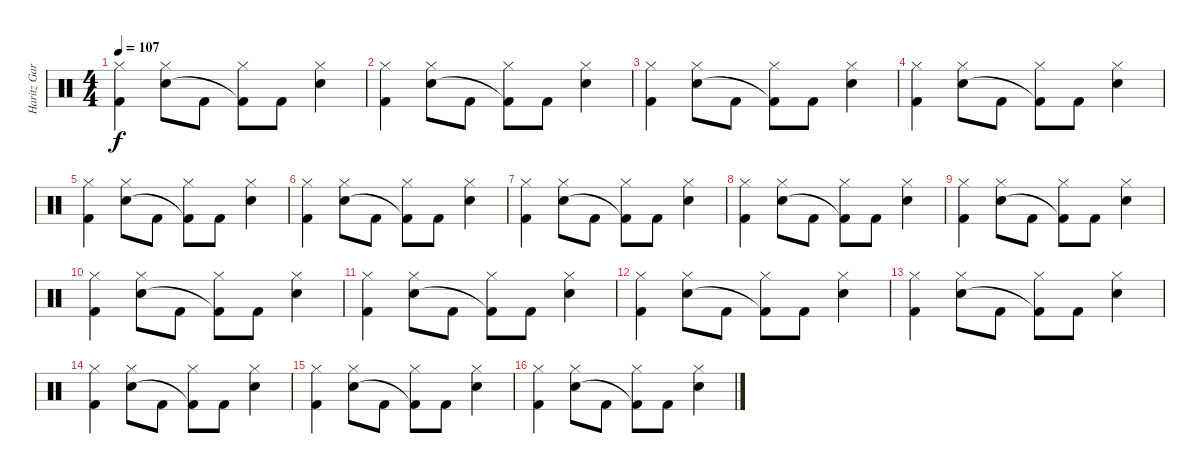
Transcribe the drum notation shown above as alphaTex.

\track ("Haritz Gardo" "Haritz Gar") {instrument percussion}
\staff {score}
\articulation defaults
\ts (4 4)
\tempo 107
\clef neutral
\ks c
("Hi-Hat (closed)" "Kick (hit) 2").4{dy f} ("Hi-Hat (closed)" "Electric Snare (hit)").8 "Kick (hit) 2".8 ("Hi-Hat (closed)" "Kick (hit) 2"{t}).8 "Kick (hit) 2".8 ("Hi-Hat (closed)" "Electric Snare (hit)").4 |
("Hi-Hat (closed)" "Kick (hit) 2").4 ("Hi-Hat (closed)" "Electric Snare (hit)").8 "Kick (hit) 2".8 ("Hi-Hat (closed)" "Kick (hit) 2"{t}).8 "Kick (hit) 2".8 ("Hi-Hat (closed)" "Electric Snare (hit)").4 |
("Hi-Hat (closed)" "Kick (hit) 2").4 ("Hi-Hat (closed)" "Electric Snare (hit)").8 "Kick (hit) 2".8 ("Hi-Hat (closed)" "Kick (hit) 2"{t}).8 "Kick (hit) 2".8 ("Hi-Hat (closed)" "Electric Snare (hit)").4 |
("Hi-Hat (closed)" "Kick (hit) 2").4 ("Hi-Hat (closed)" "Electric Snare (hit)").8 "Kick (hit) 2".8 ("Hi-Hat (closed)" "Kick (hit) 2"{t}).8 "Kick (hit) 2".8 ("Hi-Hat (closed)" "Electric Snare (hit)").4 |
("Hi-Hat (closed)" "Kick (hit) 2").4 ("Hi-Hat (closed)" "Electric Snare (hit)").8 "Kick (hit) 2".8 ("Hi-Hat (closed)" "Kick (hit) 2"{t}).8 "Kick (hit) 2".8 ("Hi-Hat (closed)" "Electric Snare (hit)").4 |
("Hi-Hat (closed)" "Kick (hit) 2").4 ("Hi-Hat (closed)" "Electric Snare (hit)").8 "Kick (hit) 2".8 ("Hi-Hat (closed)" "Kick (hit) 2"{t}).8 "Kick (hit) 2".8 ("Hi-Hat (closed)" "Electric Snare (hit)").4 |
("Hi-Hat (closed)" "Kick (hit) 2").4 ("Hi-Hat (closed)" "Electric Snare (hit)").8 "Kick (hit) 2".8 ("Hi-Hat (closed)" "Kick (hit) 2"{t}).8 "Kick (hit) 2".8 ("Hi-Hat (closed)" "Electric Snare (hit)").4 |
("Hi-Hat (closed)" "Kick (hit) 2").4 ("Hi-Hat (closed)" "Electric Snare (hit)").8 "Kick (hit) 2".8 ("Hi-Hat (closed)" "Kick (hit) 2"{t}).8 "Kick (hit) 2".8 ("Hi-Hat (closed)" "Electric Snare (hit)").4 |
("Hi-Hat (closed)" "Kick (hit) 2").4 ("Hi-Hat (closed)" "Electric Snare (hit)").8 "Kick (hit) 2".8 ("Hi-Hat (closed)" "Kick (hit) 2"{t}).8 "Kick (hit) 2".8 ("Hi-Hat (closed)" "Electric Snare (hit)").4 |
("Hi-Hat (closed)" "Kick (hit) 2").4 ("Hi-Hat (closed)" "Electric Snare (hit)").8 "Kick (hit) 2".8 ("Hi-Hat (closed)" "Kick (hit) 2"{t}).8 "Kick (hit) 2".8 ("Hi-Hat (closed)" "Electric Snare (hit)").4 |
("Hi-Hat (closed)" "Kick (hit) 2").4 ("Hi-Hat (closed)" "Electric Snare (hit)").8 "Kick (hit) 2".8 ("Hi-Hat (closed)" "Kick (hit) 2"{t}).8 "Kick (hit) 2".8 ("Hi-Hat (closed)" "Electric Snare (hit)").4 |
("Hi-Hat (closed)" "Kick (hit) 2").4 ("Hi-Hat (closed)" "Electric Snare (hit)").8 "Kick (hit) 2".8 ("Hi-Hat (closed)" "Kick (hit) 2"{t}).8 "Kick (hit) 2".8 ("Hi-Hat (closed)" "Electric Snare (hit)").4 |
("Hi-Hat (closed)" "Kick (hit) 2").4 ("Hi-Hat (closed)" "Electric Snare (hit)").8 "Kick (hit) 2".8 ("Hi-Hat (closed)" "Kick (hit) 2"{t}).8 "Kick (hit) 2".8 ("Hi-Hat (closed)" "Electric Snare (hit)").4 |
("Hi-Hat (closed)" "Kick (hit) 2").4 ("Hi-Hat (closed)" "Electric Snare (hit)").8 "Kick (hit) 2".8 ("Hi-Hat (closed)" "Kick (hit) 2"{t}).8 "Kick (hit) 2".8 ("Hi-Hat (closed)" "Electric Snare (hit)").4 |
("Hi-Hat (closed)" "Kick (hit) 2").4 ("Hi-Hat (closed)" "Electric Snare (hit)").8 "Kick (hit) 2".8 ("Hi-Hat (closed)" "Kick (hit) 2"{t}).8 "Kick (hit) 2".8 ("Hi-Hat (closed)" "Electric Snare (hit)").4 |
("Hi-Hat (closed)" "Kick (hit) 2").4 ("Hi-Hat (closed)" "Electric Snare (hit)").8 "Kick (hit) 2".8 ("Hi-Hat (closed)" "Kick (hit) 2"{t}).8 "Kick (hit) 2".8 ("Hi-Hat (closed)" "Electric Snare (hit)").4
